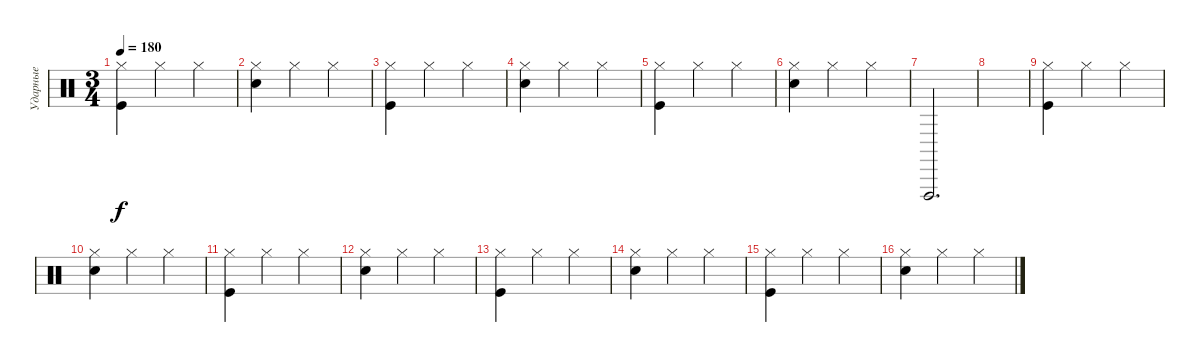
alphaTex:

\track ("Ударные" "Ударные") {instrument percussion}
\staff {score}
\articulation defaults
\ts (3 4)
\tempo 180
\clef neutral
\ks c
("Kick (hit)" "Hi-Hat (closed)").4{dy f} "Hi-Hat (closed)".4 "Hi-Hat (closed)".4 |
("Snare (hit) 2" "Hi-Hat (closed)").4 "Hi-Hat (closed)".4 "Hi-Hat (closed)".4 |
("Kick (hit)" "Hi-Hat (closed)").4 "Hi-Hat (closed)".4 "Hi-Hat (closed)".4 |
("Snare (hit) 2" "Hi-Hat (closed)").4 "Hi-Hat (closed)".4 "Hi-Hat (closed)".4 |
("Kick (hit)" "Hi-Hat (closed)").4 "Hi-Hat (closed)".4 "Hi-Hat (closed)".4 |
("Snare (hit) 2" "Hi-Hat (closed)").4 "Hi-Hat (closed)".4 "Hi-Hat (closed)".4 |
"Vibraslap (hit)".2{d} |
|
("Kick (hit)" "Hi-Hat (closed)").4 "Hi-Hat (closed)".4 "Hi-Hat (closed)".4 |
("Snare (hit) 2" "Hi-Hat (closed)").4 "Hi-Hat (closed)".4 "Hi-Hat (closed)".4 |
("Kick (hit)" "Hi-Hat (closed)").4 "Hi-Hat (closed)".4 "Hi-Hat (closed)".4 |
("Snare (hit) 2" "Hi-Hat (closed)").4 "Hi-Hat (closed)".4 "Hi-Hat (closed)".4 |
("Kick (hit)" "Hi-Hat (closed)").4 "Hi-Hat (closed)".4 "Hi-Hat (closed)".4 |
("Snare (hit) 2" "Hi-Hat (closed)").4 "Hi-Hat (closed)".4 "Hi-Hat (closed)".4 |
("Kick (hit)" "Hi-Hat (closed)").4 "Hi-Hat (closed)".4 "Hi-Hat (closed)".4 |
("Snare (hit) 2" "Hi-Hat (closed)").4 "Hi-Hat (closed)".4 "Hi-Hat (closed)".4
